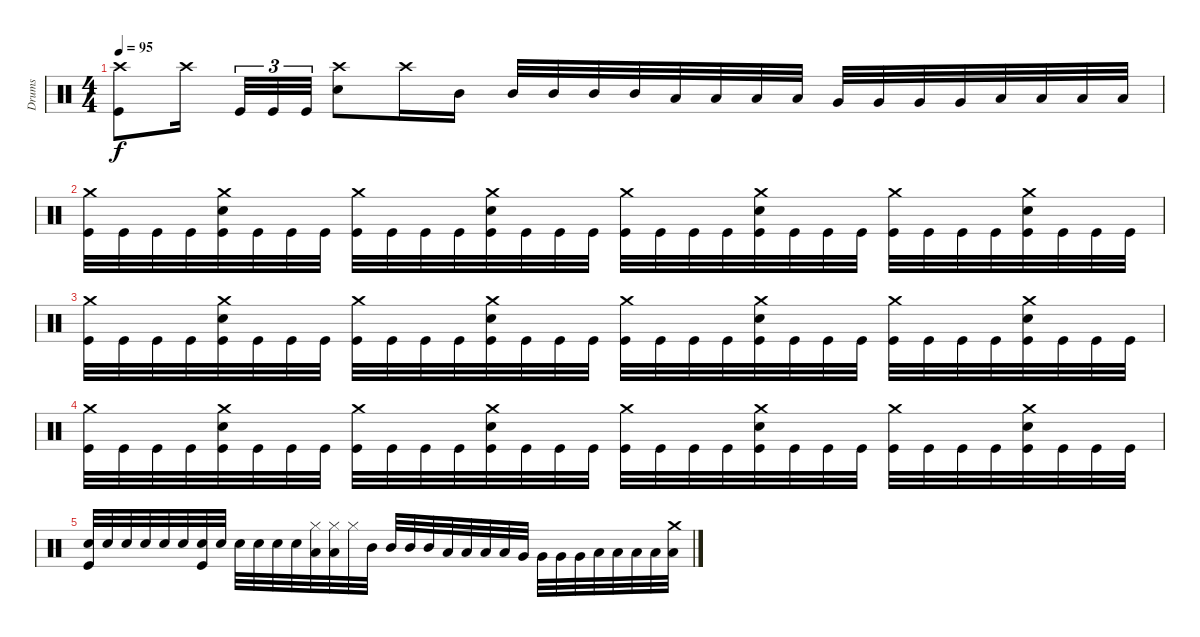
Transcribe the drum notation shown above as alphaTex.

\track ("Drums" "Drums") {instrument percussion}
\staff {score}
\articulation defaults
\ts (4 4)
\tempo 95
\clef neutral
\ks c
("Crash high (hit)" "Kick (hit)").8{dy f} "Crash high (hit)".16{beam splitsecondary} "Kick (hit)".32{tu (3 2)} "Kick (hit)".32{tu (3 2)} "Kick (hit)".32{tu (3 2)} ("Crash high (hit)" "Electric Snare (hit)").8 "Crash high (hit)".16 "Mid Tom (hit)".16 "Mid Tom (hit)".32 "Mid Tom (hit)".32 "Mid Tom (hit)".32 "Mid Tom (hit)".32 "Low Tom (hit)".32 "Low Tom (hit)".32 "Low Tom (hit)".32 "Low Tom (hit)".32 "Very Low Tom (hit)".32 "Very Low Tom (hit)".32 "Very Low Tom (hit)".32 "Very Low Tom (hit)".32 "Low Floor Tom (hit)".32 "Low Floor Tom (hit)".32 "Low Floor Tom (hit)".32 "Low Floor Tom (hit)".32 |
("Crash medium (hit)" "Kick (hit)").32 "Kick (hit)".32 "Kick (hit)".32 "Kick (hit)".32 ("Crash medium (hit)" "Electric Snare (hit)" "Kick (hit)").32 "Kick (hit)".32 "Kick (hit)".32 "Kick (hit)".32 ("Crash medium (hit)" "Kick (hit)").32 "Kick (hit)".32 "Kick (hit)".32 "Kick (hit)".32 ("Crash medium (hit)" "Electric Snare (hit)" "Kick (hit)").32 "Kick (hit)".32 "Kick (hit)".32 "Kick (hit)".32 ("Crash medium (hit)" "Kick (hit)").32 "Kick (hit)".32 "Kick (hit)".32 "Kick (hit)".32 ("Crash medium (hit)" "Electric Snare (hit)" "Kick (hit)").32 "Kick (hit)".32 "Kick (hit)".32 "Kick (hit)".32 ("Crash medium (hit)" "Kick (hit)").32 "Kick (hit)".32 "Kick (hit)".32 "Kick (hit)".32 ("Crash medium (hit)" "Electric Snare (hit)" "Kick (hit)").32 "Kick (hit)".32 "Kick (hit)".32 "Kick (hit)".32 |
("Crash medium (hit)" "Kick (hit)").32 "Kick (hit)".32 "Kick (hit)".32 "Kick (hit)".32 ("Crash medium (hit)" "Electric Snare (hit)" "Kick (hit)").32 "Kick (hit)".32 "Kick (hit)".32 "Kick (hit)".32 ("Crash medium (hit)" "Kick (hit)").32 "Kick (hit)".32 "Kick (hit)".32 "Kick (hit)".32 ("Crash medium (hit)" "Electric Snare (hit)" "Kick (hit)").32 "Kick (hit)".32 "Kick (hit)".32 "Kick (hit)".32 ("Crash medium (hit)" "Kick (hit)").32 "Kick (hit)".32 "Kick (hit)".32 "Kick (hit)".32 ("Crash medium (hit)" "Electric Snare (hit)" "Kick (hit)").32 "Kick (hit)".32 "Kick (hit)".32 "Kick (hit)".32 ("Crash medium (hit)" "Kick (hit)").32 "Kick (hit)".32 "Kick (hit)".32 "Kick (hit)".32 ("Crash medium (hit)" "Electric Snare (hit)" "Kick (hit)").32 "Kick (hit)".32 "Kick (hit)".32 "Kick (hit)".32 |
("Crash medium (hit)" "Kick (hit)").32 "Kick (hit)".32 "Kick (hit)".32 "Kick (hit)".32 ("Crash medium (hit)" "Electric Snare (hit)" "Kick (hit)").32 "Kick (hit)".32 "Kick (hit)".32 "Kick (hit)".32 ("Crash medium (hit)" "Kick (hit)").32 "Kick (hit)".32 "Kick (hit)".32 "Kick (hit)".32 ("Crash medium (hit)" "Electric Snare (hit)" "Kick (hit)").32 "Kick (hit)".32 "Kick (hit)".32 "Kick (hit)".32 ("Crash medium (hit)" "Kick (hit)").32 "Kick (hit)".32 "Kick (hit)".32 "Kick (hit)".32 ("Crash medium (hit)" "Electric Snare (hit)" "Kick (hit)").32 "Kick (hit)".32 "Kick (hit)".32 "Kick (hit)".32 ("Crash medium (hit)" "Kick (hit)").32 "Kick (hit)".32 "Kick (hit)".32 "Kick (hit)".32 ("Crash medium (hit)" "Electric Snare (hit)" "Kick (hit)").32 "Kick (hit)".32 "Kick (hit)".32 "Kick (hit)".32 |
("Electric Snare (hit)" "Kick (hit)").32 "Electric Snare (hit)".32 "Electric Snare (hit)".32 "Electric Snare (hit)".32 "Electric Snare (hit)".32 "Electric Snare (hit)".32 ("Electric Snare (hit)" "Kick (hit)").32 "Electric Snare (hit)".32 "Electric Snare (hit)".32 "Electric Snare (hit)".32 "Electric Snare (hit)".32 "Electric Snare (hit)".32 ("Hi-Hat (closed)" "Low Floor Tom (hit)").32 ("Hi-Hat (closed)" "Low Floor Tom (hit)").32 "Hi-Hat (closed)".32 "Mid Tom (hit)".32 "Mid Tom (hit)".32 "Mid Tom (hit)".32 "Mid Tom (hit)".32 "Low Tom (hit)".32 "Low Tom (hit)".32 "Low Tom (hit)".32 "Low Tom (hit)".32 "Very Low Tom (hit)".32 "Very Low Tom (hit)".32 "Very Low Tom (hit)".32 "Very Low Tom (hit)".32 "Low Floor Tom (hit)".32 "Low Floor Tom (hit)".32 "Low Floor Tom (hit)".32 "Low Floor Tom (hit)".32 ("Crash medium (hit)" "Low Floor Tom (hit)").32
